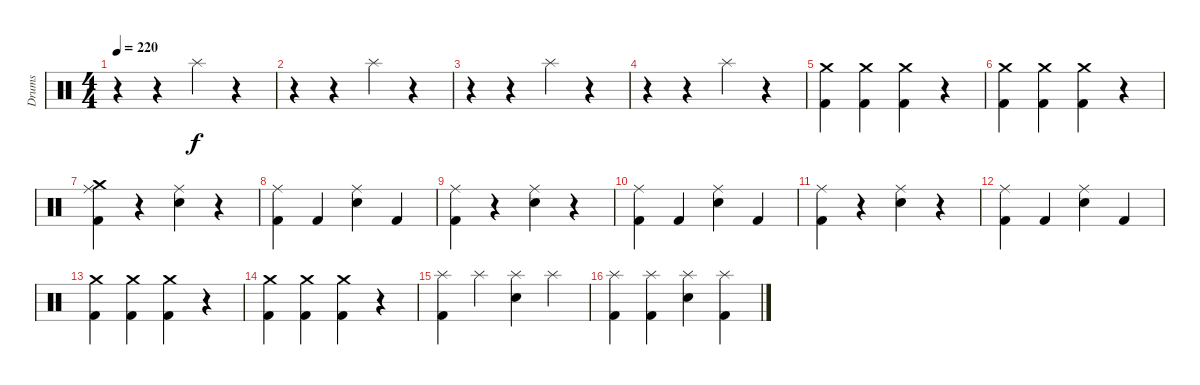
\track ("Drums" "Drums") {instrument percussion}
\staff {score}
\articulation defaults
\ts (4 4)
\tempo 220
\clef neutral
\ks c
r.4{dy f} r.4 "Splash (hit)".4 r.4 |
r.4 r.4 "Splash (hit)".4 r.4 |
r.4 r.4 "Splash (hit)".4 r.4 |
r.4 r.4 "Splash (hit)".4 r.4 |
("Crash medium (hit)" "Kick (hit) 2").4 ("Crash medium (hit)" "Kick (hit) 2").4 ("Crash medium (hit)" "Kick (hit) 2").4 r.4 |
("Crash medium (hit)" "Kick (hit) 2").4 ("Crash medium (hit)" "Kick (hit) 2").4 ("Crash medium (hit)" "Kick (hit) 2").4 r.4 |
("Crash medium (hit)" "Ride (middle)" "Kick (hit) 2").4 r.4 ("Ride (middle)" "Electric Snare (hit)").4 r.4 |
("Ride (middle)" "Kick (hit) 2").4 "Kick (hit) 2".4 ("Ride (middle)" "Electric Snare (hit)").4 "Kick (hit) 2".4 |
("Ride (middle)" "Kick (hit) 2").4 r.4 ("Ride (middle)" "Electric Snare (hit)").4 r.4 |
("Ride (middle)" "Kick (hit) 2").4 "Kick (hit) 2".4 ("Ride (middle)" "Electric Snare (hit)").4 "Kick (hit) 2".4 |
("Ride (middle)" "Kick (hit) 2").4 r.4 ("Ride (middle)" "Electric Snare (hit)").4 r.4 |
("Ride (middle)" "Kick (hit) 2").4 "Kick (hit) 2".4 ("Ride (middle)" "Electric Snare (hit)").4 "Kick (hit) 2".4 |
("Crash medium (hit)" "Kick (hit) 2").4 ("Crash medium (hit)" "Kick (hit) 2").4 ("Crash medium (hit)" "Kick (hit) 2").4 r.4 |
("Crash medium (hit)" "Kick (hit) 2").4 ("Crash medium (hit)" "Kick (hit) 2").4 ("Crash medium (hit)" "Kick (hit) 2").4 r.4 |
("Splash (hit)" "Kick (hit) 2").4 "Splash (hit)".4 ("Splash (hit)" "Electric Snare (hit)").4 "Splash (hit)".4 |
("Splash (hit)" "Kick (hit) 2").4 ("Splash (hit)" "Kick (hit) 2").4 ("Splash (hit)" "Electric Snare (hit)").4 ("Splash (hit)" "Kick (hit) 2").4
